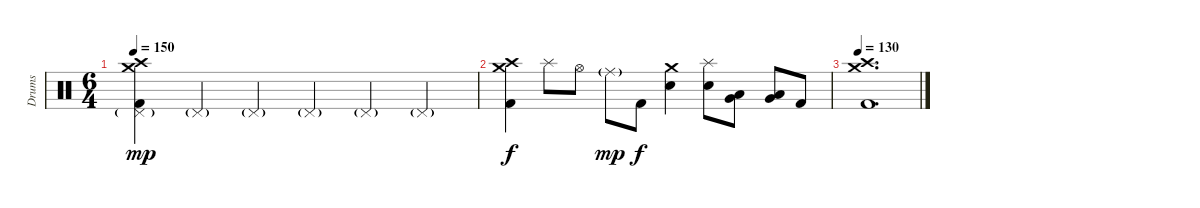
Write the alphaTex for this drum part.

\track ("Drums" "Drums") {instrument percussion}
\staff {score}
\articulation defaults
\ts (6 4)
\tempo 150
\clef neutral
\ks c
("Crash high (hit)" "Crash medium (hit)" "Pedal Hi-Hat (hit)"{g} "Kick (hit) 2").4{dy mp} "Pedal Hi-Hat (hit)"{g}.4 "Pedal Hi-Hat (hit)"{g}.4 "Pedal Hi-Hat (hit)"{g}.4 "Pedal Hi-Hat (hit)"{g}.4 "Pedal Hi-Hat (hit)"{g}.4 |
("Crash high (hit)" "Crash medium (hit)" "Kick (hit) 2").4{dy f} "Splash (hit)".8 "Hi-Hat (open)".8 "Ride (middle)"{g}.8{dy mp} "Kick (hit) 2".8{dy f} ("Crash medium (hit)" "Snare (hit) 2").4 ("Splash (hit)" "Snare (hit) 2").8 ("Low Tom (hit)" "Very Low Tom (hit)").8 ("Very Low Tom (hit)" "Low Floor Tom (hit)").8 "Kick (hit) 2".8 |
\tempo 130
("Crash high (hit)" "Crash medium (hit)" "Kick (hit) 2").1{d}
